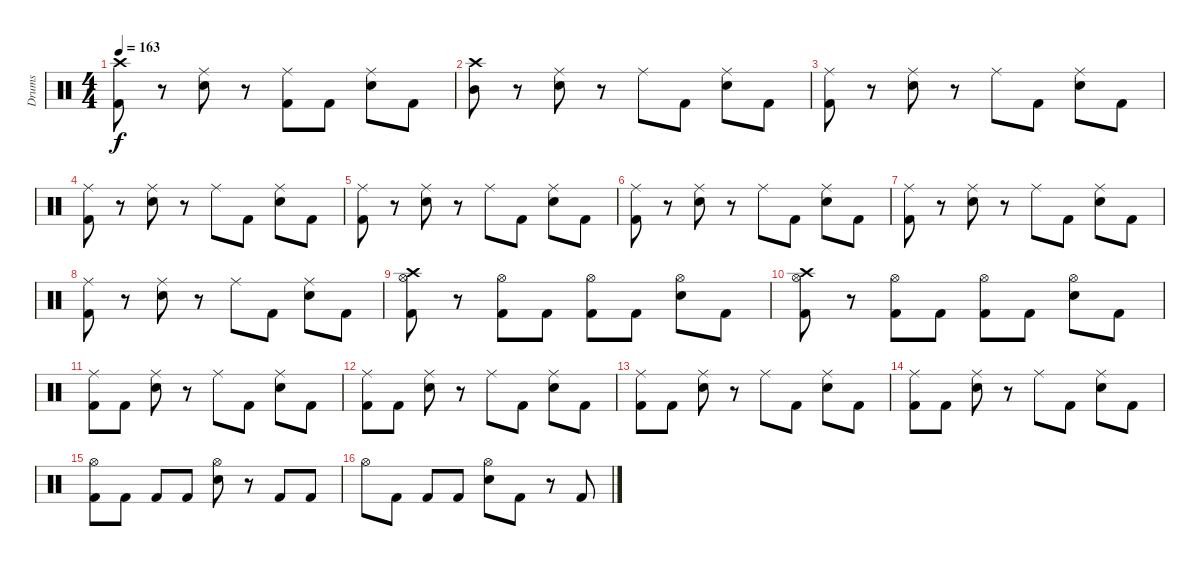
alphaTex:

\track ("Drums" "Drums") {instrument percussion}
\staff {score}
\articulation defaults
\ts (4 4)
\tempo 163
\clef neutral
\ks c
("Crash high (hit)" "Kick (hit) 2").8{dy f} r.8 ("Ride (middle)" "Electric Snare (hit)").8 r.8 ("Ride (middle)" "Kick (hit) 2").8 "Kick (hit) 2".8 ("Ride (middle)" "Electric Snare (hit)").8 "Kick (hit) 2".8 |
("Crash high (hit)" "Mid Tom (hit)").8 r.8 ("Ride (middle)" "Electric Snare (hit)").8 r.8 "Ride (middle)".8 "Kick (hit) 2".8 ("Ride (middle)" "Electric Snare (hit)").8 "Kick (hit) 2".8 |
("Ride (middle)" "Kick (hit) 2").8 r.8 ("Ride (middle)" "Electric Snare (hit)").8 r.8 "Ride (middle)".8 "Kick (hit) 2".8 ("Ride (middle)" "Electric Snare (hit)").8 "Kick (hit) 2".8 |
("Ride (middle)" "Kick (hit) 2").8 r.8 ("Ride (middle)" "Electric Snare (hit)").8 r.8 "Ride (middle)".8 "Kick (hit) 2".8 ("Ride (middle)" "Electric Snare (hit)").8 "Kick (hit) 2".8 |
("Ride (middle)" "Kick (hit) 2").8 r.8 ("Ride (middle)" "Electric Snare (hit)").8 r.8 "Ride (middle)".8 "Kick (hit) 2".8 ("Ride (middle)" "Electric Snare (hit)").8 "Kick (hit) 2".8 |
("Ride (middle)" "Kick (hit) 2").8 r.8 ("Ride (middle)" "Electric Snare (hit)").8 r.8 "Ride (middle)".8 "Kick (hit) 2".8 ("Ride (middle)" "Electric Snare (hit)").8 "Kick (hit) 2".8 |
("Ride (middle)" "Kick (hit) 2").8 r.8 ("Ride (middle)" "Electric Snare (hit)").8 r.8 "Ride (middle)".8 "Kick (hit) 2".8 ("Ride (middle)" "Electric Snare (hit)").8 "Kick (hit) 2".8 |
("Ride (middle)" "Kick (hit) 2").8 r.8 ("Ride (middle)" "Electric Snare (hit)").8 r.8 "Ride (middle)".8 "Kick (hit) 2".8 ("Ride (middle)" "Electric Snare (hit)").8 "Kick (hit) 2".8 |
("Crash high (hit)" "Hi-Hat (open)" "Kick (hit) 2").8 r.8 ("Hi-Hat (open)" "Kick (hit) 2").8 "Kick (hit) 2".8 ("Hi-Hat (open)" "Kick (hit) 2").8 "Kick (hit) 2".8 ("Hi-Hat (open)" "Electric Snare (hit)").8 "Kick (hit) 2".8 |
("Crash high (hit)" "Hi-Hat (open)" "Kick (hit) 2").8 r.8 ("Hi-Hat (open)" "Kick (hit) 2").8 "Kick (hit) 2".8 ("Hi-Hat (open)" "Kick (hit) 2").8 "Kick (hit) 2".8 ("Hi-Hat (open)" "Electric Snare (hit)").8 "Kick (hit) 2".8 |
("Ride (middle)" "Kick (hit) 2").8 "Kick (hit) 2".8 ("Ride (middle)" "Electric Snare (hit)").8 r.8 "Ride (middle)".8 "Kick (hit) 2".8 ("Ride (middle)" "Electric Snare (hit)").8 "Kick (hit) 2".8 |
("Ride (middle)" "Kick (hit) 2").8 "Kick (hit) 2".8 ("Ride (middle)" "Electric Snare (hit)").8 r.8 "Ride (middle)".8 "Kick (hit) 2".8 ("Ride (middle)" "Electric Snare (hit)").8 "Kick (hit) 2".8 |
("Ride (middle)" "Kick (hit) 2").8 "Kick (hit) 2".8 ("Ride (middle)" "Electric Snare (hit)").8 r.8 "Ride (middle)".8 "Kick (hit) 2".8 ("Ride (middle)" "Electric Snare (hit)").8 "Kick (hit) 2".8 |
("Ride (middle)" "Kick (hit) 2").8 "Kick (hit) 2".8 ("Ride (middle)" "Electric Snare (hit)").8 r.8 "Ride (middle)".8 "Kick (hit) 2".8 ("Ride (middle)" "Electric Snare (hit)").8 "Kick (hit) 2".8 |
("Hi-Hat (open)" "Kick (hit) 2").8 "Kick (hit) 2".8 "Kick (hit) 2".8 "Kick (hit) 2".8 ("Hi-Hat (open)" "Electric Snare (hit)").8 r.8 "Kick (hit) 2".8 "Kick (hit) 2".8 |
"Hi-Hat (open)".8 "Kick (hit) 2".8 "Kick (hit) 2".8 "Kick (hit) 2".8 ("Hi-Hat (open)" "Electric Snare (hit)").8 "Kick (hit) 2".8 r.8 "Kick (hit) 2".8
